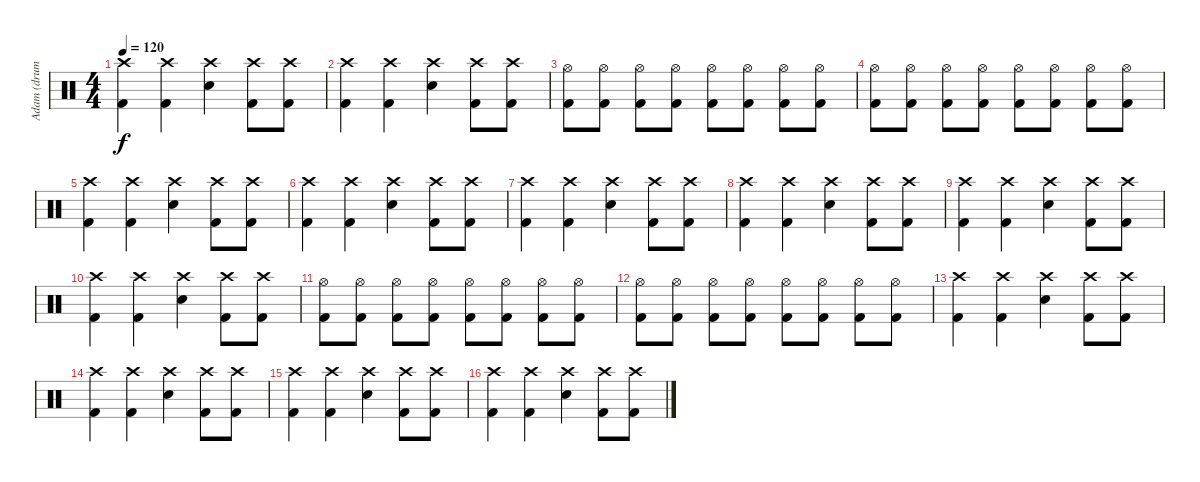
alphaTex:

\track ("Adam (drums)" "Adam (drum") {instrument percussion}
\staff {score}
\articulation defaults
\ts (4 4)
\tempo 120
\clef neutral
\ks c
("Crash high (hit)" "Kick (hit) 2").4{dy f} ("Crash high (hit)" "Kick (hit) 2").4 ("Crash high (hit)" "Snare (hit) 2").4 ("Crash high (hit)" "Kick (hit) 2").8 ("Crash high (hit)" "Kick (hit) 2").8 |
("Crash high (hit)" "Kick (hit) 2").4 ("Crash high (hit)" "Kick (hit) 2").4 ("Crash high (hit)" "Snare (hit) 2").4 ("Crash high (hit)" "Kick (hit) 2").8 ("Crash high (hit)" "Kick (hit) 2").8 |
("Hi-Hat (open)" "Kick (hit) 2").8 ("Hi-Hat (open)" "Kick (hit) 2").8 ("Hi-Hat (open)" "Kick (hit) 2").8 ("Hi-Hat (open)" "Kick (hit) 2").8 ("Hi-Hat (open)" "Kick (hit) 2").8 ("Hi-Hat (open)" "Kick (hit) 2").8 ("Hi-Hat (open)" "Kick (hit) 2").8 ("Hi-Hat (open)" "Kick (hit) 2").8 |
("Hi-Hat (open)" "Kick (hit) 2").8 ("Hi-Hat (open)" "Kick (hit) 2").8 ("Hi-Hat (open)" "Kick (hit) 2").8 ("Hi-Hat (open)" "Kick (hit) 2").8 ("Hi-Hat (open)" "Kick (hit) 2").8 ("Hi-Hat (open)" "Kick (hit) 2").8 ("Hi-Hat (open)" "Kick (hit) 2").8 ("Hi-Hat (open)" "Kick (hit) 2").8 |
("Crash high (hit)" "Kick (hit) 2").4 ("Crash high (hit)" "Kick (hit) 2").4 ("Crash high (hit)" "Snare (hit) 2").4 ("Crash high (hit)" "Kick (hit) 2").8 ("Crash high (hit)" "Kick (hit) 2").8 |
("Crash high (hit)" "Kick (hit) 2").4 ("Crash high (hit)" "Kick (hit) 2").4 ("Crash high (hit)" "Snare (hit) 2").4 ("Crash high (hit)" "Kick (hit) 2").8 ("Crash high (hit)" "Kick (hit) 2").8 |
("Crash high (hit)" "Kick (hit) 2").4 ("Crash high (hit)" "Kick (hit) 2").4 ("Crash high (hit)" "Snare (hit) 2").4 ("Crash high (hit)" "Kick (hit) 2").8 ("Crash high (hit)" "Kick (hit) 2").8 |
("Crash high (hit)" "Kick (hit) 2").4 ("Crash high (hit)" "Kick (hit) 2").4 ("Crash high (hit)" "Snare (hit) 2").4 ("Crash high (hit)" "Kick (hit) 2").8 ("Crash high (hit)" "Kick (hit) 2").8 |
("Crash high (hit)" "Kick (hit) 2").4 ("Crash high (hit)" "Kick (hit) 2").4 ("Crash high (hit)" "Snare (hit) 2").4 ("Crash high (hit)" "Kick (hit) 2").8 ("Crash high (hit)" "Kick (hit) 2").8 |
("Crash high (hit)" "Kick (hit) 2").4 ("Crash high (hit)" "Kick (hit) 2").4 ("Crash high (hit)" "Snare (hit) 2").4 ("Crash high (hit)" "Kick (hit) 2").8 ("Crash high (hit)" "Kick (hit) 2").8 |
("Hi-Hat (open)" "Kick (hit) 2").8 ("Hi-Hat (open)" "Kick (hit) 2").8 ("Hi-Hat (open)" "Kick (hit) 2").8 ("Hi-Hat (open)" "Kick (hit) 2").8 ("Hi-Hat (open)" "Kick (hit) 2").8 ("Hi-Hat (open)" "Kick (hit) 2").8 ("Hi-Hat (open)" "Kick (hit) 2").8 ("Hi-Hat (open)" "Kick (hit) 2").8 |
("Hi-Hat (open)" "Kick (hit) 2").8 ("Hi-Hat (open)" "Kick (hit) 2").8 ("Hi-Hat (open)" "Kick (hit) 2").8 ("Hi-Hat (open)" "Kick (hit) 2").8 ("Hi-Hat (open)" "Kick (hit) 2").8 ("Hi-Hat (open)" "Kick (hit) 2").8 ("Hi-Hat (open)" "Kick (hit) 2").8 ("Hi-Hat (open)" "Kick (hit) 2").8 |
("Crash high (hit)" "Kick (hit) 2").4 ("Crash high (hit)" "Kick (hit) 2").4 ("Crash high (hit)" "Snare (hit) 2").4 ("Crash high (hit)" "Kick (hit) 2").8 ("Crash high (hit)" "Kick (hit) 2").8 |
("Crash high (hit)" "Kick (hit) 2").4 ("Crash high (hit)" "Kick (hit) 2").4 ("Crash high (hit)" "Snare (hit) 2").4 ("Crash high (hit)" "Kick (hit) 2").8 ("Crash high (hit)" "Kick (hit) 2").8 |
("Crash high (hit)" "Kick (hit) 2").4 ("Crash high (hit)" "Kick (hit) 2").4 ("Crash high (hit)" "Snare (hit) 2").4 ("Crash high (hit)" "Kick (hit) 2").8 ("Crash high (hit)" "Kick (hit) 2").8 |
("Crash high (hit)" "Kick (hit) 2").4 ("Crash high (hit)" "Kick (hit) 2").4 ("Crash high (hit)" "Snare (hit) 2").4 ("Crash high (hit)" "Kick (hit) 2").8 ("Crash high (hit)" "Kick (hit) 2").8
